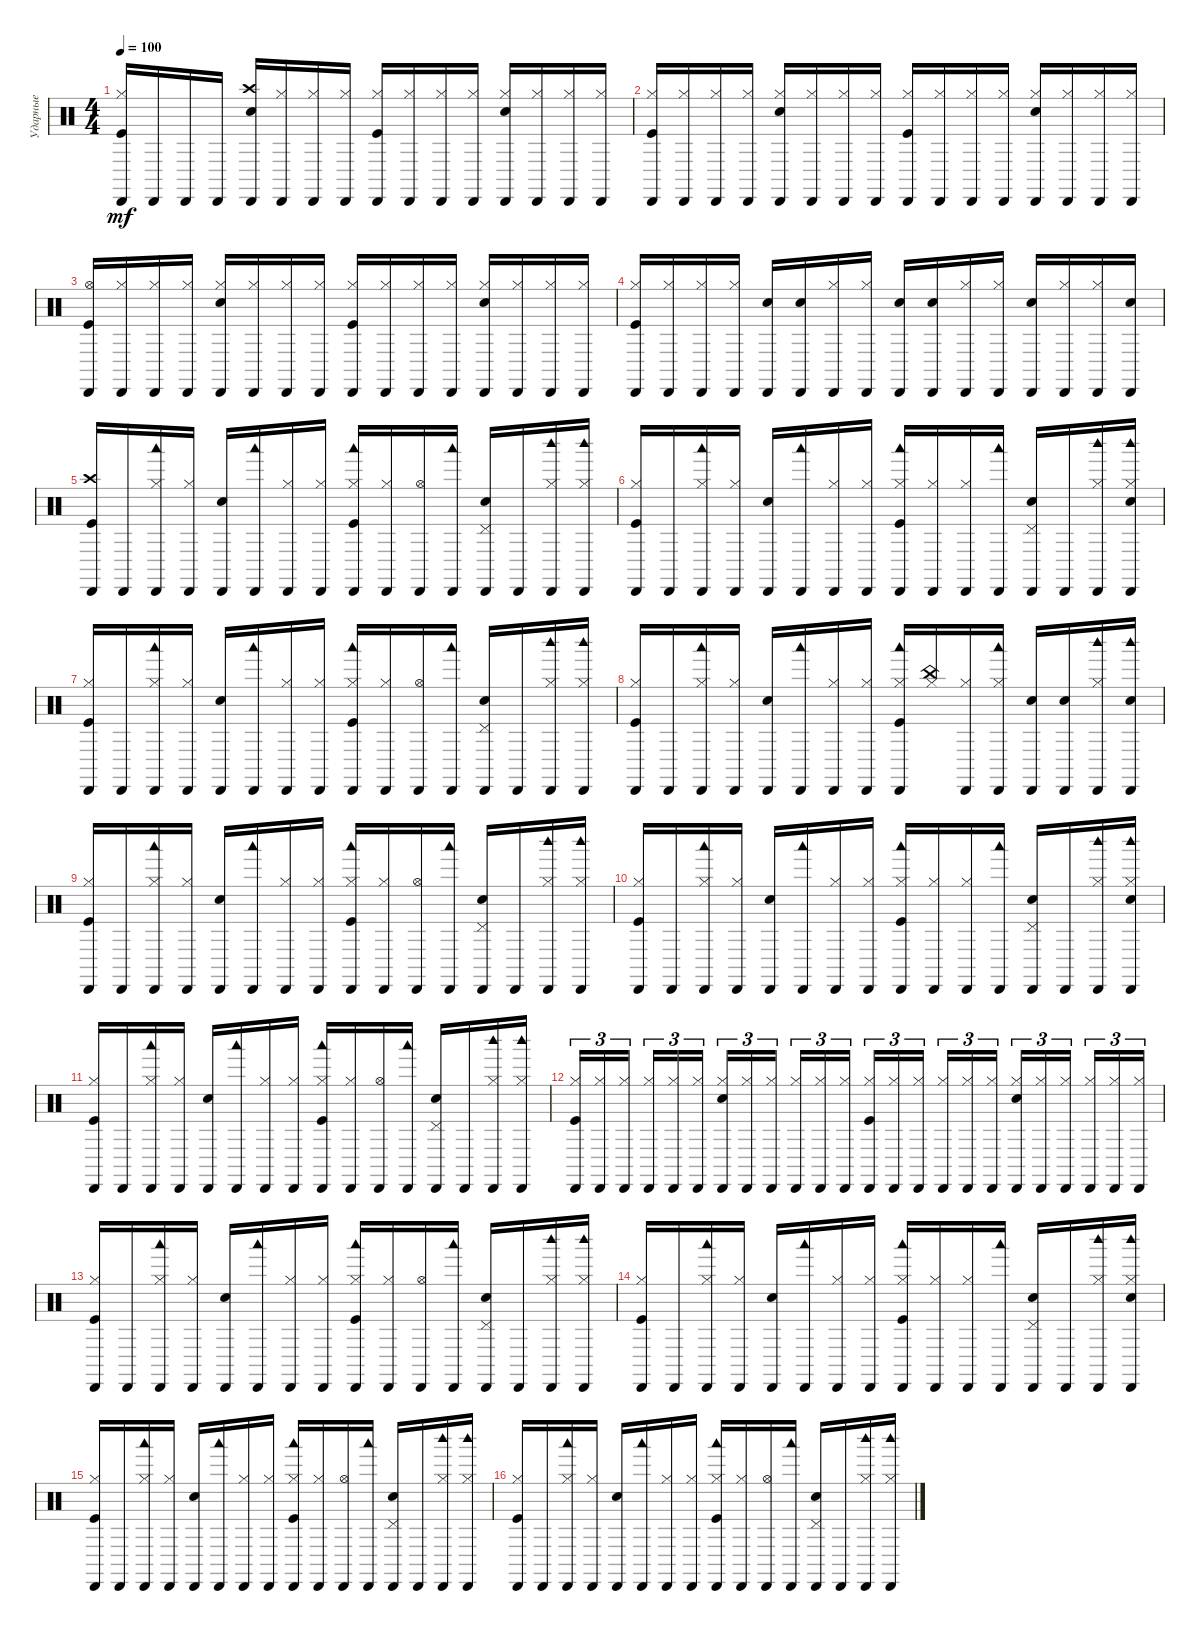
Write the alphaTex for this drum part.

\track ("Ударные" "Ударные") {instrument percussion}
\staff {score}
\articulation defaults
\ts (4 4)
\tempo 100
\clef neutral
\ks c
("Kick (hit)" "Hi-Hat (closed)" "Cabasa (hit)").16{dy mf} "Cabasa (hit)".16 "Cabasa (hit)".16 "Cabasa (hit)".16 ("Snare (hit) 2" "Crash high (hit)" "Cabasa (hit)").16 ("Hi-Hat (closed)" "Cabasa (hit)").16 ("Hi-Hat (closed)" "Cabasa (hit)").16 ("Hi-Hat (closed)" "Cabasa (hit)").16 ("Kick (hit)" "Hi-Hat (closed)" "Cabasa (hit)").16 ("Hi-Hat (closed)" "Cabasa (hit)").16 ("Hi-Hat (closed)" "Cabasa (hit)").16 ("Hi-Hat (closed)" "Cabasa (hit)").16 ("Snare (hit) 2" "Hi-Hat (closed)" "Cabasa (hit)").16 ("Hi-Hat (closed)" "Cabasa (hit)").16 ("Hi-Hat (closed)" "Cabasa (hit)").16 ("Hi-Hat (closed)" "Cabasa (hit)").16 |
("Kick (hit)" "Hi-Hat (closed)" "Cabasa (hit)").16 ("Hi-Hat (closed)" "Cabasa (hit)").16 ("Hi-Hat (closed)" "Cabasa (hit)").16 ("Hi-Hat (closed)" "Cabasa (hit)").16 ("Snare (hit) 2" "Hi-Hat (closed)" "Cabasa (hit)").16 ("Hi-Hat (closed)" "Cabasa (hit)").16 ("Hi-Hat (closed)" "Cabasa (hit)").16 ("Hi-Hat (closed)" "Cabasa (hit)").16 ("Kick (hit)" "Hi-Hat (closed)" "Cabasa (hit)").16 ("Hi-Hat (closed)" "Cabasa (hit)").16 ("Hi-Hat (closed)" "Cabasa (hit)").16 ("Hi-Hat (closed)" "Cabasa (hit)").16 ("Snare (hit) 2" "Hi-Hat (closed)" "Cabasa (hit)").16 ("Hi-Hat (closed)" "Cabasa (hit)").16 ("Hi-Hat (closed)" "Cabasa (hit)").16 ("Hi-Hat (closed)" "Cabasa (hit)").16 |
("Kick (hit)" "Hi-Hat (open)" "Cabasa (hit)").16 ("Hi-Hat (closed)" "Cabasa (hit)").16 ("Hi-Hat (closed)" "Cabasa (hit)").16 ("Hi-Hat (closed)" "Cabasa (hit)").16 ("Snare (hit) 2" "Hi-Hat (closed)" "Cabasa (hit)").16 ("Hi-Hat (closed)" "Cabasa (hit)").16 ("Hi-Hat (closed)" "Cabasa (hit)").16 ("Hi-Hat (closed)" "Cabasa (hit)").16 ("Kick (hit)" "Hi-Hat (closed)" "Cabasa (hit)").16 ("Hi-Hat (closed)" "Cabasa (hit)").16 ("Hi-Hat (closed)" "Cabasa (hit)").16 ("Hi-Hat (closed)" "Cabasa (hit)").16 ("Snare (hit) 2" "Hi-Hat (closed)" "Cabasa (hit)").16 ("Hi-Hat (closed)" "Cabasa (hit)").16 ("Hi-Hat (closed)" "Cabasa (hit)").16 ("Hi-Hat (closed)" "Cabasa (hit)").16 |
("Kick (hit)" "Hi-Hat (closed)" "Cabasa (hit)").16 ("Hi-Hat (closed)" "Cabasa (hit)").16 ("Hi-Hat (closed)" "Cabasa (hit)").16 ("Hi-Hat (closed)" "Cabasa (hit)").16 ("Snare (hit) 2" "Cabasa (hit)").16 ("Snare (hit) 2" "Cabasa (hit)").16 ("Hi-Hat (closed)" "Cabasa (hit)").16 ("Hi-Hat (closed)" "Cabasa (hit)").16 ("Snare (hit) 2" "Cabasa (hit)").16 ("Snare (hit) 2" "Cabasa (hit)").16 ("Hi-Hat (closed)" "Cabasa (hit)").16 ("Hi-Hat (closed)" "Cabasa (hit)").16 ("Snare (hit) 2" "Cabasa (hit)").16 ("Hi-Hat (closed)" "Cabasa (hit)").16 ("Hi-Hat (closed)" "Cabasa (hit)").16 ("Snare (hit) 2" "Cabasa (hit)").16 |
("Kick (hit)" "Crash high (hit)" "Cabasa (hit)").16 "Cabasa (hit)".16 ("Hi-Hat (closed)" "Woodblock low (hit)" "Cabasa (hit)").16 ("Hi-Hat (closed)" "Cabasa (hit)").16 ("Snare (hit) 2" "Cabasa (hit)").16 ("Woodblock low (hit)" "Cabasa (hit)").16 ("Hi-Hat (closed)" "Cabasa (hit)").16 ("Hi-Hat (closed)" "Cabasa (hit)").16 ("Kick (hit)" "Hi-Hat (closed)" "Woodblock low (hit)" "Cabasa (hit)").16 ("Hi-Hat (closed)" "Cabasa (hit)").16 ("Hi-Hat (open)" "Cabasa (hit)").16 ("Woodblock low (hit)" "Cabasa (hit)").16 ("Snare (hit) 2" "Pedal Hi-Hat (hit)" "Cabasa (hit)").16 "Cabasa (hit)".16 ("Hi-Hat (closed)" "Woodblock high (hit)" "Cabasa (hit)").16 ("Hi-Hat (closed)" "Woodblock high (hit)" "Cabasa (hit)").16 |
("Kick (hit)" "Hi-Hat (closed)" "Cabasa (hit)").16 "Cabasa (hit)".16 ("Hi-Hat (closed)" "Woodblock low (hit)" "Cabasa (hit)").16 ("Hi-Hat (closed)" "Cabasa (hit)").16 ("Snare (hit) 2" "Cabasa (hit)").16 ("Woodblock low (hit)" "Cabasa (hit)").16 ("Hi-Hat (closed)" "Cabasa (hit)").16 ("Hi-Hat (closed)" "Cabasa (hit)").16 ("Kick (hit)" "Hi-Hat (closed)" "Woodblock low (hit)" "Cabasa (hit)").16 ("Hi-Hat (closed)" "Cabasa (hit)").16 ("Hi-Hat (closed)" "Cabasa (hit)").16 ("Woodblock low (hit)" "Cabasa (hit)").16 ("Snare (hit) 2" "Pedal Hi-Hat (hit)" "Cabasa (hit)").16 "Cabasa (hit)".16 ("Hi-Hat (closed)" "Woodblock high (hit)" "Cabasa (hit)").16 ("Snare (hit) 2" "Hi-Hat (closed)" "Woodblock high (hit)" "Cabasa (hit)").16 |
("Kick (hit)" "Hi-Hat (closed)" "Cabasa (hit)").16 "Cabasa (hit)".16 ("Hi-Hat (closed)" "Woodblock low (hit)" "Cabasa (hit)").16 ("Hi-Hat (closed)" "Cabasa (hit)").16 ("Snare (hit) 2" "Cabasa (hit)").16 ("Woodblock low (hit)" "Cabasa (hit)").16 ("Hi-Hat (closed)" "Cabasa (hit)").16 ("Hi-Hat (closed)" "Cabasa (hit)").16 ("Kick (hit)" "Hi-Hat (closed)" "Woodblock low (hit)" "Cabasa (hit)").16 ("Hi-Hat (closed)" "Cabasa (hit)").16 ("Hi-Hat (open)" "Cabasa (hit)").16 ("Woodblock low (hit)" "Cabasa (hit)").16 ("Snare (hit) 2" "Pedal Hi-Hat (hit)" "Cabasa (hit)").16 "Cabasa (hit)".16 ("Hi-Hat (closed)" "Woodblock high (hit)" "Cabasa (hit)").16 ("Hi-Hat (closed)" "Woodblock high (hit)" "Cabasa (hit)").16 |
("Kick (hit)" "Hi-Hat (closed)" "Cabasa (hit)").16 "Cabasa (hit)".16 ("Hi-Hat (closed)" "Woodblock low (hit)" "Cabasa (hit)").16 ("Hi-Hat (closed)" "Cabasa (hit)").16 ("Snare (hit) 2" "Cabasa (hit)").16 ("Woodblock low (hit)" "Cabasa (hit)").16 ("Hi-Hat (closed)" "Cabasa (hit)").16 ("Hi-Hat (closed)" "Cabasa (hit)").16 ("Kick (hit)" "Hi-Hat (closed)" "Woodblock low (hit)" "Cabasa (hit)").16 ("Hi-Hat (closed)" "China (choke)").16 ("Hi-Hat (closed)" "Cabasa (hit)").16 ("Hi-Hat (closed)" "Woodblock low (hit)" "Cabasa (hit)").16 ("Snare (hit) 2" "Cabasa (hit)").16 ("Snare (hit) 2" "Cabasa (hit)").16 ("Hi-Hat (closed)" "Woodblock high (hit)" "Cabasa (hit)").16 ("Snare (hit) 2" "Woodblock high (hit)" "Cabasa (hit)").16 |
("Kick (hit)" "Hi-Hat (closed)" "Cabasa (hit)").16 "Cabasa (hit)".16 ("Hi-Hat (closed)" "Woodblock low (hit)" "Cabasa (hit)").16 ("Hi-Hat (closed)" "Cabasa (hit)").16 ("Snare (hit) 2" "Cabasa (hit)").16 ("Woodblock low (hit)" "Cabasa (hit)").16 ("Hi-Hat (closed)" "Cabasa (hit)").16 ("Hi-Hat (closed)" "Cabasa (hit)").16 ("Kick (hit)" "Hi-Hat (closed)" "Woodblock low (hit)" "Cabasa (hit)").16 ("Hi-Hat (closed)" "Cabasa (hit)").16 ("Hi-Hat (open)" "Cabasa (hit)").16 ("Woodblock low (hit)" "Cabasa (hit)").16 ("Snare (hit) 2" "Pedal Hi-Hat (hit)" "Cabasa (hit)").16 "Cabasa (hit)".16 ("Hi-Hat (closed)" "Woodblock high (hit)" "Cabasa (hit)").16 ("Hi-Hat (closed)" "Woodblock high (hit)" "Cabasa (hit)").16 |
("Kick (hit)" "Hi-Hat (closed)" "Cabasa (hit)").16 "Cabasa (hit)".16 ("Hi-Hat (closed)" "Woodblock low (hit)" "Cabasa (hit)").16 ("Hi-Hat (closed)" "Cabasa (hit)").16 ("Snare (hit) 2" "Cabasa (hit)").16 ("Woodblock low (hit)" "Cabasa (hit)").16 ("Hi-Hat (closed)" "Cabasa (hit)").16 ("Hi-Hat (closed)" "Cabasa (hit)").16 ("Kick (hit)" "Hi-Hat (closed)" "Woodblock low (hit)" "Cabasa (hit)").16 ("Hi-Hat (closed)" "Cabasa (hit)").16 ("Hi-Hat (closed)" "Cabasa (hit)").16 ("Woodblock low (hit)" "Cabasa (hit)").16 ("Snare (hit) 2" "Pedal Hi-Hat (hit)" "Cabasa (hit)").16 "Cabasa (hit)".16 ("Hi-Hat (closed)" "Woodblock high (hit)" "Cabasa (hit)").16 ("Snare (hit) 2" "Hi-Hat (closed)" "Woodblock high (hit)" "Cabasa (hit)").16 |
("Kick (hit)" "Hi-Hat (closed)" "Cabasa (hit)").16 "Cabasa (hit)".16 ("Hi-Hat (closed)" "Woodblock low (hit)" "Cabasa (hit)").16 ("Hi-Hat (closed)" "Cabasa (hit)").16 ("Snare (hit) 2" "Cabasa (hit)").16 ("Woodblock low (hit)" "Cabasa (hit)").16 ("Hi-Hat (closed)" "Cabasa (hit)").16 ("Hi-Hat (closed)" "Cabasa (hit)").16 ("Kick (hit)" "Hi-Hat (closed)" "Woodblock low (hit)" "Cabasa (hit)").16 ("Hi-Hat (closed)" "Cabasa (hit)").16 ("Hi-Hat (open)" "Cabasa (hit)").16 ("Woodblock low (hit)" "Cabasa (hit)").16 ("Snare (hit) 2" "Pedal Hi-Hat (hit)" "Cabasa (hit)").16 "Cabasa (hit)".16 ("Hi-Hat (closed)" "Woodblock high (hit)" "Cabasa (hit)").16 ("Hi-Hat (closed)" "Woodblock high (hit)" "Cabasa (hit)").16 |
("Kick (hit)" "Hi-Hat (closed)" "Cabasa (hit)").16{tu (3 2)} ("Hi-Hat (closed)" "Cabasa (hit)").16{tu (3 2)} ("Hi-Hat (closed)" "Cabasa (hit)").16{tu (3 2) beam splitsecondary} ("Hi-Hat (closed)" "Cabasa (hit)").16{tu (3 2)} ("Hi-Hat (closed)" "Cabasa (hit)").16{tu (3 2)} ("Hi-Hat (closed)" "Cabasa (hit)").16{tu (3 2)} ("Snare (hit) 2" "Hi-Hat (closed)" "Cabasa (hit)").16{tu (3 2)} ("Hi-Hat (closed)" "Cabasa (hit)").16{tu (3 2)} ("Hi-Hat (closed)" "Cabasa (hit)").16{tu (3 2) beam splitsecondary} ("Hi-Hat (closed)" "Cabasa (hit)").16{tu (3 2)} ("Hi-Hat (closed)" "Cabasa (hit)").16{tu (3 2)} ("Hi-Hat (closed)" "Cabasa (hit)").16{tu (3 2)} ("Kick (hit)" "Hi-Hat (closed)" "Cabasa (hit)").16{tu (3 2)} ("Hi-Hat (closed)" "Cabasa (hit)").16{tu (3 2)} ("Hi-Hat (closed)" "Cabasa (hit)").16{tu (3 2) beam splitsecondary} ("Hi-Hat (closed)" "Cabasa (hit)").16{tu (3 2)} ("Hi-Hat (closed)" "Cabasa (hit)").16{tu (3 2)} ("Hi-Hat (closed)" "Cabasa (hit)").16{tu (3 2)} ("Snare (hit) 2" "Hi-Hat (closed)" "Cabasa (hit)").16{tu (3 2)} ("Hi-Hat (closed)" "Cabasa (hit)").16{tu (3 2)} ("Hi-Hat (closed)" "Cabasa (hit)").16{tu (3 2) beam splitsecondary} ("Hi-Hat (closed)" "Cabasa (hit)").16{tu (3 2)} ("Hi-Hat (closed)" "Cabasa (hit)").16{tu (3 2)} ("Hi-Hat (closed)" "Cabasa (hit)").16{tu (3 2)} |
("Kick (hit)" "Hi-Hat (closed)" "Cabasa (hit)").16 "Cabasa (hit)".16 ("Hi-Hat (closed)" "Woodblock low (hit)" "Cabasa (hit)").16 ("Hi-Hat (closed)" "Cabasa (hit)").16 ("Snare (hit) 2" "Cabasa (hit)").16 ("Woodblock low (hit)" "Cabasa (hit)").16 ("Hi-Hat (closed)" "Cabasa (hit)").16 ("Hi-Hat (closed)" "Cabasa (hit)").16 ("Kick (hit)" "Hi-Hat (closed)" "Woodblock low (hit)" "Cabasa (hit)").16 ("Hi-Hat (closed)" "Cabasa (hit)").16 ("Hi-Hat (open)" "Cabasa (hit)").16 ("Woodblock low (hit)" "Cabasa (hit)").16 ("Snare (hit) 2" "Pedal Hi-Hat (hit)" "Cabasa (hit)").16 "Cabasa (hit)".16 ("Hi-Hat (closed)" "Woodblock high (hit)" "Cabasa (hit)").16 ("Hi-Hat (closed)" "Woodblock high (hit)" "Cabasa (hit)").16 |
("Kick (hit)" "Hi-Hat (closed)" "Cabasa (hit)").16 "Cabasa (hit)".16 ("Hi-Hat (closed)" "Woodblock low (hit)" "Cabasa (hit)").16 ("Hi-Hat (closed)" "Cabasa (hit)").16 ("Snare (hit) 2" "Cabasa (hit)").16 ("Woodblock low (hit)" "Cabasa (hit)").16 ("Hi-Hat (closed)" "Cabasa (hit)").16 ("Hi-Hat (closed)" "Cabasa (hit)").16 ("Kick (hit)" "Hi-Hat (closed)" "Woodblock low (hit)" "Cabasa (hit)").16 ("Hi-Hat (closed)" "Cabasa (hit)").16 ("Hi-Hat (closed)" "Cabasa (hit)").16 ("Woodblock low (hit)" "Cabasa (hit)").16 ("Snare (hit) 2" "Pedal Hi-Hat (hit)" "Cabasa (hit)").16 "Cabasa (hit)".16 ("Hi-Hat (closed)" "Woodblock high (hit)" "Cabasa (hit)").16 ("Snare (hit) 2" "Hi-Hat (closed)" "Woodblock high (hit)" "Cabasa (hit)").16 |
("Kick (hit)" "Hi-Hat (closed)" "Cabasa (hit)").16 "Cabasa (hit)".16 ("Hi-Hat (closed)" "Woodblock low (hit)" "Cabasa (hit)").16 ("Hi-Hat (closed)" "Cabasa (hit)").16 ("Snare (hit) 2" "Cabasa (hit)").16 ("Woodblock low (hit)" "Cabasa (hit)").16 ("Hi-Hat (closed)" "Cabasa (hit)").16 ("Hi-Hat (closed)" "Cabasa (hit)").16 ("Kick (hit)" "Hi-Hat (closed)" "Woodblock low (hit)" "Cabasa (hit)").16 ("Hi-Hat (closed)" "Cabasa (hit)").16 ("Hi-Hat (open)" "Cabasa (hit)").16 ("Woodblock low (hit)" "Cabasa (hit)").16 ("Snare (hit) 2" "Pedal Hi-Hat (hit)" "Cabasa (hit)").16 "Cabasa (hit)".16 ("Hi-Hat (closed)" "Woodblock high (hit)" "Cabasa (hit)").16 ("Hi-Hat (closed)" "Woodblock high (hit)" "Cabasa (hit)").16 |
("Kick (hit)" "Hi-Hat (closed)" "Cabasa (hit)").16 "Cabasa (hit)".16 ("Hi-Hat (closed)" "Woodblock low (hit)" "Cabasa (hit)").16 ("Hi-Hat (closed)" "Cabasa (hit)").16 ("Snare (hit) 2" "Cabasa (hit)").16 ("Woodblock low (hit)" "Cabasa (hit)").16 ("Hi-Hat (closed)" "Cabasa (hit)").16 ("Hi-Hat (closed)" "Cabasa (hit)").16 ("Kick (hit)" "Hi-Hat (closed)" "Woodblock low (hit)" "Cabasa (hit)").16 ("Hi-Hat (closed)" "Cabasa (hit)").16 ("Hi-Hat (open)" "Cabasa (hit)").16 ("Woodblock low (hit)" "Cabasa (hit)").16 ("Snare (hit) 2" "Pedal Hi-Hat (hit)" "Cabasa (hit)").16 "Cabasa (hit)".16 ("Hi-Hat (closed)" "Woodblock high (hit)" "Cabasa (hit)").16 ("Hi-Hat (closed)" "Woodblock high (hit)" "Cabasa (hit)").16
